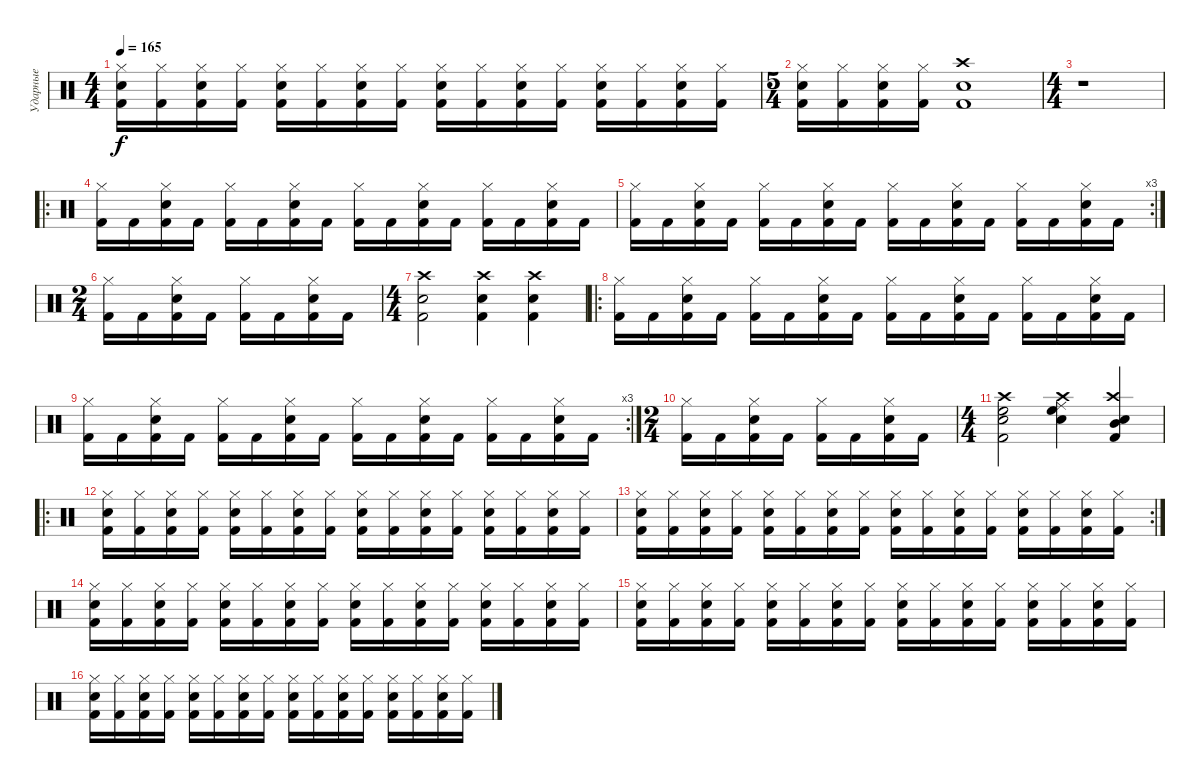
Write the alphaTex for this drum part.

\track ("Ударные" "Ударные") {instrument percussion}
\staff
\articulation defaults
\ts (4 4)
\tempo 165
\clef neutral
\ks c
("Kick (hit) 2" "Snare (hit) 2" "Hi-Hat (closed)").16{dy f} ("Kick (hit) 2" "Hi-Hat (closed)").16 ("Kick (hit) 2" "Snare (hit) 2" "Hi-Hat (closed)").16 ("Kick (hit) 2" "Hi-Hat (closed)").16 ("Kick (hit) 2" "Snare (hit) 2" "Hi-Hat (closed)").16 ("Kick (hit) 2" "Hi-Hat (closed)").16 ("Kick (hit) 2" "Snare (hit) 2" "Hi-Hat (closed)").16 ("Kick (hit) 2" "Hi-Hat (closed)").16 ("Kick (hit) 2" "Snare (hit) 2" "Hi-Hat (closed)").16 ("Kick (hit) 2" "Hi-Hat (closed)").16 ("Kick (hit) 2" "Snare (hit) 2" "Hi-Hat (closed)").16 ("Kick (hit) 2" "Hi-Hat (closed)").16 ("Kick (hit) 2" "Snare (hit) 2" "Hi-Hat (closed)").16 ("Kick (hit) 2" "Hi-Hat (closed)").16 ("Kick (hit) 2" "Snare (hit) 2" "Hi-Hat (closed)").16 ("Kick (hit) 2" "Hi-Hat (closed)").16 |
\ts (5 4)
("Kick (hit) 2" "Snare (hit) 2" "Hi-Hat (closed)").16 ("Kick (hit) 2" "Hi-Hat (closed)").16 ("Kick (hit) 2" "Snare (hit) 2" "Hi-Hat (closed)").16 ("Kick (hit) 2" "Hi-Hat (closed)").16 ("Crash high (hit)" "Snare (hit) 2" "Kick (hit) 2").1 |
\ts (4 4)
r.1 |
\ro
("Kick (hit) 2" "Hi-Hat (closed)").16 "Kick (hit) 2".16 ("Kick (hit) 2" "Snare (hit) 2" "Hi-Hat (closed)").16 "Kick (hit) 2".16 ("Kick (hit) 2" "Hi-Hat (closed)").16 "Kick (hit) 2".16 ("Kick (hit) 2" "Snare (hit) 2" "Hi-Hat (closed)").16 "Kick (hit) 2".16 ("Kick (hit) 2" "Hi-Hat (closed)").16 "Kick (hit) 2".16 ("Kick (hit) 2" "Snare (hit) 2" "Hi-Hat (closed)").16 "Kick (hit) 2".16 ("Kick (hit) 2" "Hi-Hat (closed)").16 "Kick (hit) 2".16 ("Kick (hit) 2" "Snare (hit) 2" "Hi-Hat (closed)").16 "Kick (hit) 2".16 |
\rc 3
("Kick (hit) 2" "Hi-Hat (closed)").16 "Kick (hit) 2".16 ("Kick (hit) 2" "Snare (hit) 2" "Hi-Hat (closed)").16 "Kick (hit) 2".16 ("Kick (hit) 2" "Hi-Hat (closed)").16 "Kick (hit) 2".16 ("Kick (hit) 2" "Snare (hit) 2" "Hi-Hat (closed)").16 "Kick (hit) 2".16 ("Kick (hit) 2" "Hi-Hat (closed)").16 "Kick (hit) 2".16 ("Kick (hit) 2" "Snare (hit) 2" "Hi-Hat (closed)").16 "Kick (hit) 2".16 ("Kick (hit) 2" "Hi-Hat (closed)").16 "Kick (hit) 2".16 ("Kick (hit) 2" "Snare (hit) 2" "Hi-Hat (closed)").16 "Kick (hit) 2".16 |
\ts (2 4)
("Kick (hit) 2" "Hi-Hat (closed)").16 "Kick (hit) 2".16 ("Kick (hit) 2" "Snare (hit) 2" "Hi-Hat (closed)").16 "Kick (hit) 2".16 ("Kick (hit) 2" "Hi-Hat (closed)").16 "Kick (hit) 2".16 ("Kick (hit) 2" "Snare (hit) 2" "Hi-Hat (closed)").16 "Kick (hit) 2".16 |
\ts (4 4)
("Kick (hit) 2" "Snare (hit) 2" "Crash high (hit)").2 ("Snare (hit) 2" "Kick (hit) 2" "Crash high (hit)").4 ("Snare (hit) 2" "Kick (hit) 2" "Crash high (hit)").4 |
\ro
("Kick (hit) 2" "Hi-Hat (closed)").16 "Kick (hit) 2".16 ("Kick (hit) 2" "Snare (hit) 2" "Hi-Hat (closed)").16 "Kick (hit) 2".16 ("Kick (hit) 2" "Hi-Hat (closed)").16 "Kick (hit) 2".16 ("Kick (hit) 2" "Snare (hit) 2" "Hi-Hat (closed)").16 "Kick (hit) 2".16 ("Kick (hit) 2" "Hi-Hat (closed)").16 "Kick (hit) 2".16 ("Kick (hit) 2" "Snare (hit) 2" "Hi-Hat (closed)").16 "Kick (hit) 2".16 ("Kick (hit) 2" "Hi-Hat (closed)").16 "Kick (hit) 2".16 ("Kick (hit) 2" "Snare (hit) 2" "Hi-Hat (closed)").16 "Kick (hit) 2".16 |
\rc 3
("Kick (hit) 2" "Hi-Hat (closed)").16 "Kick (hit) 2".16 ("Kick (hit) 2" "Snare (hit) 2" "Hi-Hat (closed)").16 "Kick (hit) 2".16 ("Kick (hit) 2" "Hi-Hat (closed)").16 "Kick (hit) 2".16 ("Kick (hit) 2" "Snare (hit) 2" "Hi-Hat (closed)").16 "Kick (hit) 2".16 ("Kick (hit) 2" "Hi-Hat (closed)").16 "Kick (hit) 2".16 ("Kick (hit) 2" "Snare (hit) 2" "Hi-Hat (closed)").16 "Kick (hit) 2".16 ("Kick (hit) 2" "Hi-Hat (closed)").16 "Kick (hit) 2".16 ("Kick (hit) 2" "Snare (hit) 2" "Hi-Hat (closed)").16 "Kick (hit) 2".16 |
\ts (2 4)
("Kick (hit) 2" "Hi-Hat (closed)").16 "Kick (hit) 2".16 ("Kick (hit) 2" "Snare (hit) 2" "Hi-Hat (closed)").16 "Kick (hit) 2".16 ("Kick (hit) 2" "Hi-Hat (closed)").16 "Kick (hit) 2".16 ("Kick (hit) 2" "Snare (hit) 2" "Hi-Hat (closed)").16 "Kick (hit) 2".16 |
\ts (4 4)
("Kick (hit) 2" "Snare (hit) 2" "High Floor Tom (hit)" "Crash high (hit)").2 ("Ride (middle)" "High Floor Tom (hit)" "Snare (hit) 2" "Crash high (hit)").4 ("Kick (hit) 2" "Snare (hit) 2" "Mid Tom (hit)" "Crash high (hit)").4 |
\ro
("Kick (hit) 2" "Snare (hit) 2" "Hi-Hat (closed)").16 ("Kick (hit) 2" "Hi-Hat (closed)").16 ("Kick (hit) 2" "Snare (hit) 2" "Hi-Hat (closed)").16 ("Kick (hit) 2" "Hi-Hat (closed)").16 ("Kick (hit) 2" "Snare (hit) 2" "Hi-Hat (closed)").16 ("Kick (hit) 2" "Hi-Hat (closed)").16 ("Kick (hit) 2" "Snare (hit) 2" "Hi-Hat (closed)").16 ("Kick (hit) 2" "Hi-Hat (closed)").16 ("Kick (hit) 2" "Snare (hit) 2" "Hi-Hat (closed)").16 ("Kick (hit) 2" "Hi-Hat (closed)").16 ("Kick (hit) 2" "Snare (hit) 2" "Hi-Hat (closed)").16 ("Kick (hit) 2" "Hi-Hat (closed)").16 ("Kick (hit) 2" "Snare (hit) 2" "Hi-Hat (closed)").16 ("Kick (hit) 2" "Hi-Hat (closed)").16 ("Kick (hit) 2" "Snare (hit) 2" "Hi-Hat (closed)").16 ("Kick (hit) 2" "Hi-Hat (closed)").16 |
\rc 2
("Kick (hit) 2" "Snare (hit) 2" "Hi-Hat (closed)").16 ("Kick (hit) 2" "Hi-Hat (closed)").16 ("Kick (hit) 2" "Snare (hit) 2" "Hi-Hat (closed)").16 ("Kick (hit) 2" "Hi-Hat (closed)").16 ("Kick (hit) 2" "Snare (hit) 2" "Hi-Hat (closed)").16 ("Kick (hit) 2" "Hi-Hat (closed)").16 ("Kick (hit) 2" "Snare (hit) 2" "Hi-Hat (closed)").16 ("Kick (hit) 2" "Hi-Hat (closed)").16 ("Kick (hit) 2" "Snare (hit) 2" "Hi-Hat (closed)").16 ("Kick (hit) 2" "Hi-Hat (closed)").16 ("Kick (hit) 2" "Snare (hit) 2" "Hi-Hat (closed)").16 ("Kick (hit) 2" "Hi-Hat (closed)").16 ("Kick (hit) 2" "Snare (hit) 2" "Hi-Hat (closed)").16 ("Kick (hit) 2" "Hi-Hat (closed)").16 ("Kick (hit) 2" "Snare (hit) 2" "Hi-Hat (closed)").16 ("Kick (hit) 2" "Hi-Hat (closed)").16 |
("Kick (hit) 2" "Snare (hit) 2" "Hi-Hat (closed)").16 ("Kick (hit) 2" "Hi-Hat (closed)").16 ("Kick (hit) 2" "Snare (hit) 2" "Hi-Hat (closed)").16 ("Kick (hit) 2" "Hi-Hat (closed)").16 ("Kick (hit) 2" "Snare (hit) 2" "Hi-Hat (closed)").16 ("Kick (hit) 2" "Hi-Hat (closed)").16 ("Kick (hit) 2" "Snare (hit) 2" "Hi-Hat (closed)").16 ("Kick (hit) 2" "Hi-Hat (closed)").16 ("Kick (hit) 2" "Snare (hit) 2" "Hi-Hat (closed)").16 ("Kick (hit) 2" "Hi-Hat (closed)").16 ("Kick (hit) 2" "Snare (hit) 2" "Hi-Hat (closed)").16 ("Kick (hit) 2" "Hi-Hat (closed)").16 ("Kick (hit) 2" "Snare (hit) 2" "Hi-Hat (closed)").16 ("Kick (hit) 2" "Hi-Hat (closed)").16 ("Kick (hit) 2" "Snare (hit) 2" "Hi-Hat (closed)").16 ("Kick (hit) 2" "Hi-Hat (closed)").16 |
("Kick (hit) 2" "Snare (hit) 2" "Hi-Hat (closed)").16 ("Kick (hit) 2" "Hi-Hat (closed)").16 ("Kick (hit) 2" "Snare (hit) 2" "Hi-Hat (closed)").16 ("Kick (hit) 2" "Hi-Hat (closed)").16 ("Kick (hit) 2" "Snare (hit) 2" "Hi-Hat (closed)").16 ("Kick (hit) 2" "Hi-Hat (closed)").16 ("Kick (hit) 2" "Snare (hit) 2" "Hi-Hat (closed)").16 ("Kick (hit) 2" "Hi-Hat (closed)").16 ("Kick (hit) 2" "Snare (hit) 2" "Hi-Hat (closed)").16 ("Kick (hit) 2" "Hi-Hat (closed)").16 ("Kick (hit) 2" "Snare (hit) 2" "Hi-Hat (closed)").16 ("Kick (hit) 2" "Hi-Hat (closed)").16 ("Kick (hit) 2" "Snare (hit) 2" "Hi-Hat (closed)").16 ("Kick (hit) 2" "Hi-Hat (closed)").16 ("Kick (hit) 2" "Snare (hit) 2" "Hi-Hat (closed)").16 ("Kick (hit) 2" "Hi-Hat (closed)").16 |
("Kick (hit) 2" "Snare (hit) 2" "Hi-Hat (closed)").16 ("Kick (hit) 2" "Hi-Hat (closed)").16 ("Kick (hit) 2" "Snare (hit) 2" "Hi-Hat (closed)").16 ("Kick (hit) 2" "Hi-Hat (closed)").16 ("Kick (hit) 2" "Snare (hit) 2" "Hi-Hat (closed)").16 ("Kick (hit) 2" "Hi-Hat (closed)").16 ("Kick (hit) 2" "Snare (hit) 2" "Hi-Hat (closed)").16 ("Kick (hit) 2" "Hi-Hat (closed)").16 ("Kick (hit) 2" "Snare (hit) 2" "Hi-Hat (closed)").16 ("Kick (hit) 2" "Hi-Hat (closed)").16 ("Kick (hit) 2" "Snare (hit) 2" "Hi-Hat (closed)").16 ("Kick (hit) 2" "Hi-Hat (closed)").16 ("Kick (hit) 2" "Snare (hit) 2" "Hi-Hat (closed)").16 ("Kick (hit) 2" "Hi-Hat (closed)").16 ("Kick (hit) 2" "Snare (hit) 2" "Hi-Hat (closed)").16 ("Kick (hit) 2" "Hi-Hat (closed)").16
